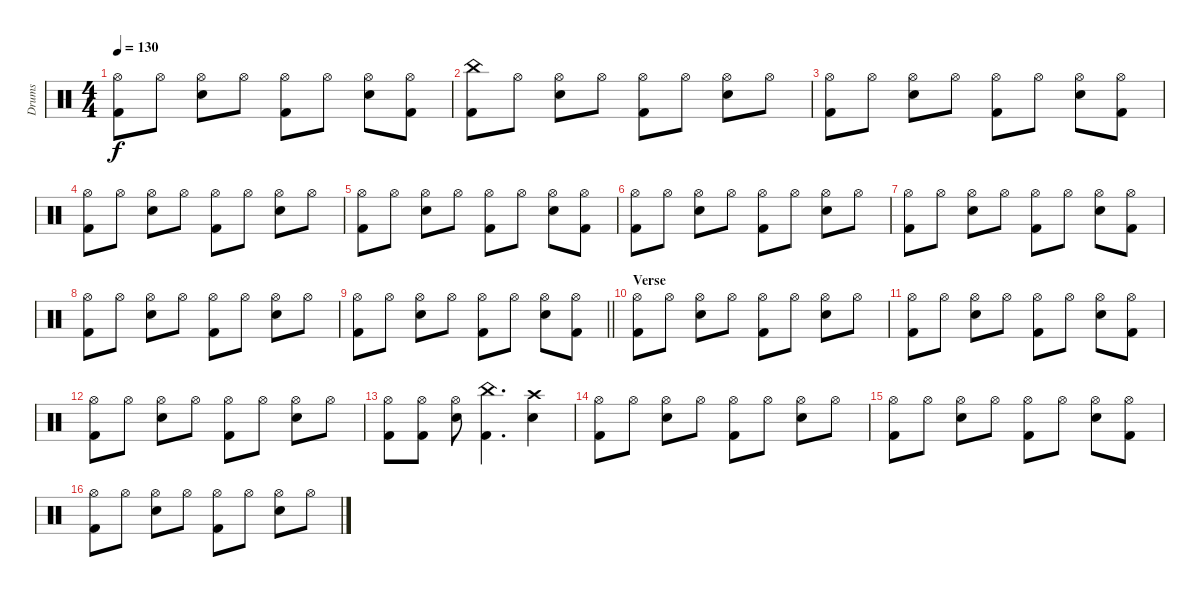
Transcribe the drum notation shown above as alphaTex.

\track ("Drums" "Drums") {instrument percussion}
\staff {score}
\articulation defaults
\ts (4 4)
\tempo 130
\clef neutral
\ks c
("Hi-Hat (open)" "Kick (hit) 2").8{dy f} "Hi-Hat (open)".8 ("Hi-Hat (open)" "Snare (hit) 2").8 "Hi-Hat (open)".8 ("Hi-Hat (open)" "Kick (hit) 2").8 "Hi-Hat (open)".8 ("Hi-Hat (open)" "Snare (hit) 2").8 ("Hi-Hat (open)" "Kick (hit) 2").8 |
("China (hit)" "Kick (hit) 2").8 "Hi-Hat (open)".8 ("Hi-Hat (open)" "Snare (hit) 2").8 "Hi-Hat (open)".8 ("Hi-Hat (open)" "Kick (hit) 2").8 "Hi-Hat (open)".8 ("Hi-Hat (open)" "Snare (hit) 2").8 "Hi-Hat (open)".8 |
("Hi-Hat (open)" "Kick (hit) 2").8 "Hi-Hat (open)".8 ("Hi-Hat (open)" "Snare (hit) 2").8 "Hi-Hat (open)".8 ("Hi-Hat (open)" "Kick (hit) 2").8 "Hi-Hat (open)".8 ("Hi-Hat (open)" "Snare (hit) 2").8 ("Hi-Hat (open)" "Kick (hit) 2").8 |
("Hi-Hat (open)" "Kick (hit) 2").8 "Hi-Hat (open)".8 ("Hi-Hat (open)" "Snare (hit) 2").8 "Hi-Hat (open)".8 ("Hi-Hat (open)" "Kick (hit) 2").8 "Hi-Hat (open)".8 ("Hi-Hat (open)" "Snare (hit) 2").8 "Hi-Hat (open)".8 |
("Hi-Hat (open)" "Kick (hit) 2").8 "Hi-Hat (open)".8 ("Hi-Hat (open)" "Snare (hit) 2").8 "Hi-Hat (open)".8 ("Hi-Hat (open)" "Kick (hit) 2").8 "Hi-Hat (open)".8 ("Hi-Hat (open)" "Snare (hit) 2").8 ("Hi-Hat (open)" "Kick (hit) 2").8 |
("Hi-Hat (open)" "Kick (hit) 2").8 "Hi-Hat (open)".8 ("Hi-Hat (open)" "Snare (hit) 2").8 "Hi-Hat (open)".8 ("Hi-Hat (open)" "Kick (hit) 2").8 "Hi-Hat (open)".8 ("Hi-Hat (open)" "Snare (hit) 2").8 "Hi-Hat (open)".8 |
("Hi-Hat (open)" "Kick (hit) 2").8 "Hi-Hat (open)".8 ("Hi-Hat (open)" "Snare (hit) 2").8 "Hi-Hat (open)".8 ("Hi-Hat (open)" "Kick (hit) 2").8 "Hi-Hat (open)".8 ("Hi-Hat (open)" "Snare (hit) 2").8 ("Hi-Hat (open)" "Kick (hit) 2").8 |
("Hi-Hat (open)" "Kick (hit) 2").8 "Hi-Hat (open)".8 ("Hi-Hat (open)" "Snare (hit) 2").8 "Hi-Hat (open)".8 ("Hi-Hat (open)" "Kick (hit) 2").8 "Hi-Hat (open)".8 ("Hi-Hat (open)" "Snare (hit) 2").8 "Hi-Hat (open)".8 |
\barLineRight lightlight
("Hi-Hat (open)" "Kick (hit) 2").8 "Hi-Hat (open)".8 ("Hi-Hat (open)" "Snare (hit) 2").8 "Hi-Hat (open)".8 ("Hi-Hat (open)" "Kick (hit) 2").8 "Hi-Hat (open)".8 ("Hi-Hat (open)" "Snare (hit) 2").8 ("Hi-Hat (open)" "Kick (hit) 2").8 |
\section ("" "Verse")
("Hi-Hat (open)" "Kick (hit) 2").8 "Hi-Hat (open)".8 ("Hi-Hat (open)" "Snare (hit) 2").8 "Hi-Hat (open)".8 ("Hi-Hat (open)" "Kick (hit) 2").8 "Hi-Hat (open)".8 ("Hi-Hat (open)" "Snare (hit) 2").8 "Hi-Hat (open)".8 |
("Hi-Hat (open)" "Kick (hit) 2").8 "Hi-Hat (open)".8 ("Hi-Hat (open)" "Snare (hit) 2").8 "Hi-Hat (open)".8 ("Hi-Hat (open)" "Kick (hit) 2").8 "Hi-Hat (open)".8 ("Hi-Hat (open)" "Snare (hit) 2").8 ("Hi-Hat (open)" "Kick (hit) 2").8 |
("Hi-Hat (open)" "Kick (hit) 2").8 "Hi-Hat (open)".8 ("Hi-Hat (open)" "Snare (hit) 2").8 "Hi-Hat (open)".8 ("Hi-Hat (open)" "Kick (hit) 2").8 "Hi-Hat (open)".8 ("Hi-Hat (open)" "Snare (hit) 2").8 "Hi-Hat (open)".8 |
("Hi-Hat (open)" "Kick (hit) 2").8 ("Hi-Hat (open)" "Kick (hit) 2").8 ("Hi-Hat (open)" "Snare (hit) 2").8 ("China (hit)" "Kick (hit) 2").4{d} ("Crash high (hit)" "Snare (hit) 2").4 |
("Hi-Hat (open)" "Kick (hit) 2").8 "Hi-Hat (open)".8 ("Hi-Hat (open)" "Snare (hit) 2").8 "Hi-Hat (open)".8 ("Hi-Hat (open)" "Kick (hit) 2").8 "Hi-Hat (open)".8 ("Hi-Hat (open)" "Snare (hit) 2").8 "Hi-Hat (open)".8 |
("Hi-Hat (open)" "Kick (hit) 2").8 "Hi-Hat (open)".8 ("Hi-Hat (open)" "Snare (hit) 2").8 "Hi-Hat (open)".8 ("Hi-Hat (open)" "Kick (hit) 2").8 "Hi-Hat (open)".8 ("Hi-Hat (open)" "Snare (hit) 2").8 ("Hi-Hat (open)" "Kick (hit) 2").8 |
("Hi-Hat (open)" "Kick (hit) 2").8 "Hi-Hat (open)".8 ("Hi-Hat (open)" "Snare (hit) 2").8 "Hi-Hat (open)".8 ("Hi-Hat (open)" "Kick (hit) 2").8 "Hi-Hat (open)".8 ("Hi-Hat (open)" "Snare (hit) 2").8 "Hi-Hat (open)".8
